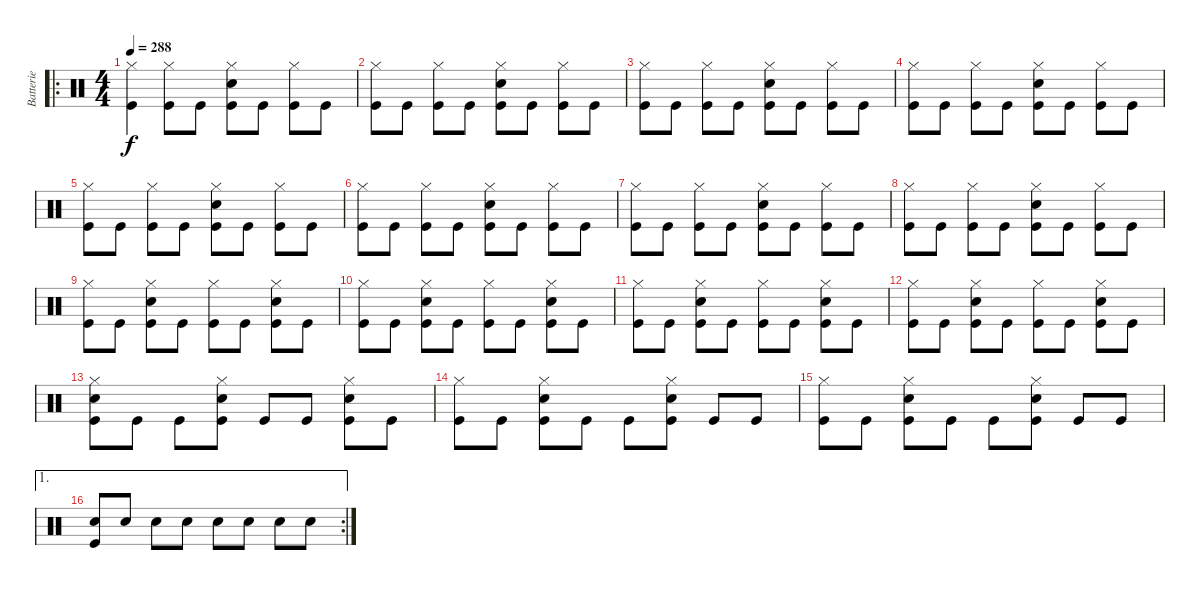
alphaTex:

\track ("Batterie" "Batterie") {instrument percussion}
\staff {score}
\articulation defaults
\ro
\ts (4 4)
\tempo 288
\clef neutral
\ks c
("Hi-Hat (closed)" "Kick (hit)").4{dy f} ("Hi-Hat (closed)" "Kick (hit)").8 "Kick (hit)".8 ("Hi-Hat (closed)" "Snare (hit) 2" "Kick (hit)").8 "Kick (hit)".8 ("Hi-Hat (closed)" "Kick (hit)").8 "Kick (hit)".8 |
("Hi-Hat (closed)" "Kick (hit)").8 "Kick (hit)".8 ("Hi-Hat (closed)" "Kick (hit)").8 "Kick (hit)".8 ("Hi-Hat (closed)" "Snare (hit) 2" "Kick (hit)").8 "Kick (hit)".8 ("Hi-Hat (closed)" "Kick (hit)").8 "Kick (hit)".8 |
("Hi-Hat (closed)" "Kick (hit)").8 "Kick (hit)".8 ("Hi-Hat (closed)" "Kick (hit)").8 "Kick (hit)".8 ("Hi-Hat (closed)" "Snare (hit) 2" "Kick (hit)").8 "Kick (hit)".8 ("Hi-Hat (closed)" "Kick (hit)").8 "Kick (hit)".8 |
("Hi-Hat (closed)" "Kick (hit)").8 "Kick (hit)".8 ("Hi-Hat (closed)" "Kick (hit)").8 "Kick (hit)".8 ("Hi-Hat (closed)" "Snare (hit) 2" "Kick (hit)").8 "Kick (hit)".8 ("Hi-Hat (closed)" "Kick (hit)").8 "Kick (hit)".8 |
("Hi-Hat (closed)" "Kick (hit)").8 "Kick (hit)".8 ("Hi-Hat (closed)" "Kick (hit)").8 "Kick (hit)".8 ("Hi-Hat (closed)" "Snare (hit) 2" "Kick (hit)").8 "Kick (hit)".8 ("Hi-Hat (closed)" "Kick (hit)").8 "Kick (hit)".8 |
("Hi-Hat (closed)" "Kick (hit)").8 "Kick (hit)".8 ("Hi-Hat (closed)" "Kick (hit)").8 "Kick (hit)".8 ("Hi-Hat (closed)" "Snare (hit) 2" "Kick (hit)").8 "Kick (hit)".8 ("Hi-Hat (closed)" "Kick (hit)").8 "Kick (hit)".8 |
("Hi-Hat (closed)" "Kick (hit)").8 "Kick (hit)".8 ("Hi-Hat (closed)" "Kick (hit)").8 "Kick (hit)".8 ("Hi-Hat (closed)" "Snare (hit) 2" "Kick (hit)").8 "Kick (hit)".8 ("Hi-Hat (closed)" "Kick (hit)").8 "Kick (hit)".8 |
("Hi-Hat (closed)" "Kick (hit)").8 "Kick (hit)".8 ("Hi-Hat (closed)" "Kick (hit)").8 "Kick (hit)".8 ("Hi-Hat (closed)" "Snare (hit) 2" "Kick (hit)").8 "Kick (hit)".8 ("Hi-Hat (closed)" "Kick (hit)").8 "Kick (hit)".8 |
("Hi-Hat (closed)" "Kick (hit)").8 "Kick (hit)".8 ("Hi-Hat (closed)" "Snare (hit) 2" "Kick (hit)").8 "Kick (hit)".8 ("Hi-Hat (closed)" "Kick (hit)").8 "Kick (hit)".8 ("Hi-Hat (closed)" "Snare (hit) 2" "Kick (hit)").8 "Kick (hit)".8 |
("Hi-Hat (closed)" "Kick (hit)").8 "Kick (hit)".8 ("Hi-Hat (closed)" "Snare (hit) 2" "Kick (hit)").8 "Kick (hit)".8 ("Hi-Hat (closed)" "Kick (hit)").8 "Kick (hit)".8 ("Hi-Hat (closed)" "Snare (hit) 2" "Kick (hit)").8 "Kick (hit)".8 |
("Hi-Hat (closed)" "Kick (hit)").8 "Kick (hit)".8 ("Hi-Hat (closed)" "Snare (hit) 2" "Kick (hit)").8 "Kick (hit)".8 ("Hi-Hat (closed)" "Kick (hit)").8 "Kick (hit)".8 ("Hi-Hat (closed)" "Snare (hit) 2" "Kick (hit)").8 "Kick (hit)".8 |
("Hi-Hat (closed)" "Kick (hit)").8 "Kick (hit)".8 ("Hi-Hat (closed)" "Snare (hit) 2" "Kick (hit)").8 "Kick (hit)".8 ("Hi-Hat (closed)" "Kick (hit)").8 "Kick (hit)".8 ("Hi-Hat (closed)" "Snare (hit) 2" "Kick (hit)").8 "Kick (hit)".8 |
("Hi-Hat (closed)" "Snare (hit) 2" "Kick (hit)").8 "Kick (hit)".8 "Kick (hit)".8 ("Hi-Hat (closed)" "Snare (hit) 2" "Kick (hit)").8 "Kick (hit)".8 "Kick (hit)".8 ("Hi-Hat (closed)" "Snare (hit) 2" "Kick (hit)").8 "Kick (hit)".8 |
("Hi-Hat (closed)" "Kick (hit)").8 "Kick (hit)".8 ("Hi-Hat (closed)" "Snare (hit) 2" "Kick (hit)").8 "Kick (hit)".8 "Kick (hit)".8 ("Hi-Hat (closed)" "Snare (hit) 2" "Kick (hit)").8 "Kick (hit)".8 "Kick (hit)".8 |
("Hi-Hat (closed)" "Kick (hit)").8 "Kick (hit)".8 ("Hi-Hat (closed)" "Snare (hit) 2" "Kick (hit)").8 "Kick (hit)".8 "Kick (hit)".8 ("Hi-Hat (closed)" "Snare (hit) 2" "Kick (hit)").8 "Kick (hit)".8 "Kick (hit)".8 |
\ae 1
\rc 2
("Snare (hit) 2" "Kick (hit)").8 "Snare (hit) 2".8 "Snare (hit) 2".8 "Snare (hit) 2".8 "Snare (hit) 2".8 "Snare (hit) 2".8 "Snare (hit) 2".8 "Snare (hit) 2".8
